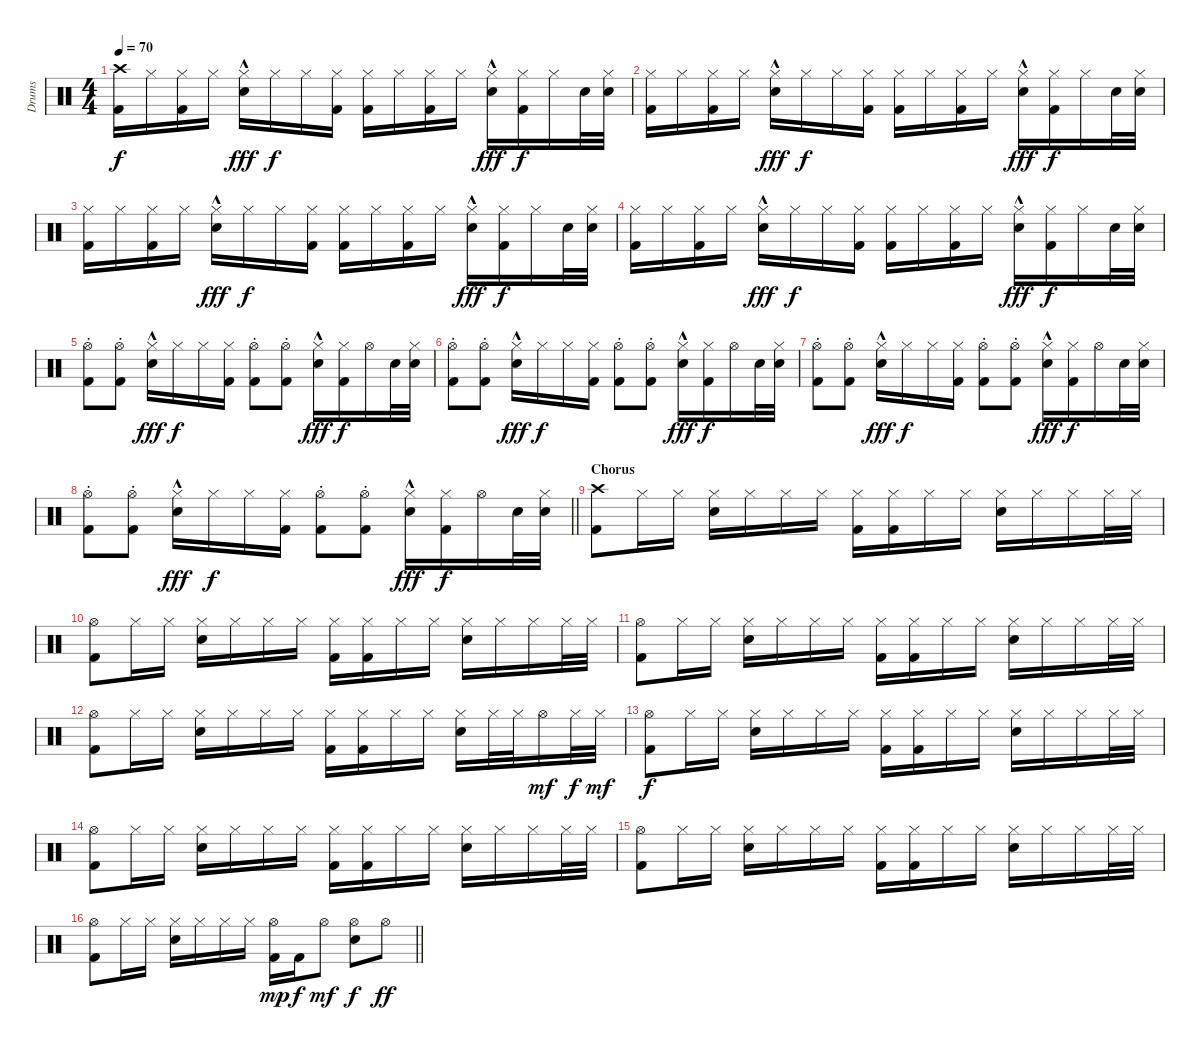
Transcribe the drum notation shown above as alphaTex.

\track ("Drums" "Drums") {instrument percussion}
\staff {score}
\articulation defaults
\ts (4 4)
\tempo 70
\clef neutral
\ks c
("Crash high (hit)" "Kick (hit) 2").16{dy f} "Hi-Hat (closed)".16 ("Hi-Hat (closed)" "Kick (hit) 2").16 "Hi-Hat (closed)".16 ("Hi-Hat (closed)" "Electric Snare (hit)"{hac}).16{dy fff} "Hi-Hat (closed)".16{dy f} "Hi-Hat (closed)".16 ("Hi-Hat (closed)" "Kick (hit) 2").16 ("Hi-Hat (closed)" "Kick (hit) 2").16 "Hi-Hat (closed)".16 ("Hi-Hat (closed)" "Kick (hit) 2").16 "Hi-Hat (closed)".16 ("Hi-Hat (closed)" "Electric Snare (hit)"{hac}).16{dy fff} ("Hi-Hat (closed)" "Kick (hit) 2").16{dy f} "Hi-Hat (closed)".16 "Electric Snare (hit)".32 ("Hi-Hat (closed)" "Electric Snare (hit)").32 |
("Hi-Hat (closed)" "Kick (hit) 2").16 "Hi-Hat (closed)".16 ("Hi-Hat (closed)" "Kick (hit) 2").16 "Hi-Hat (closed)".16 ("Hi-Hat (closed)" "Electric Snare (hit)"{hac}).16{dy fff} "Hi-Hat (closed)".16{dy f} "Hi-Hat (closed)".16 ("Hi-Hat (closed)" "Kick (hit) 2").16 ("Hi-Hat (closed)" "Kick (hit) 2").16 "Hi-Hat (closed)".16 ("Hi-Hat (closed)" "Kick (hit) 2").16 "Hi-Hat (closed)".16 ("Hi-Hat (closed)" "Electric Snare (hit)"{hac}).16{dy fff} ("Hi-Hat (closed)" "Kick (hit) 2").16{dy f} "Hi-Hat (closed)".16 "Electric Snare (hit)".32 ("Hi-Hat (closed)" "Electric Snare (hit)").32 |
("Hi-Hat (closed)" "Kick (hit) 2").16 "Hi-Hat (closed)".16 ("Hi-Hat (closed)" "Kick (hit) 2").16 "Hi-Hat (closed)".16 ("Hi-Hat (closed)" "Electric Snare (hit)"{hac}).16{dy fff} "Hi-Hat (closed)".16{dy f} "Hi-Hat (closed)".16 ("Hi-Hat (closed)" "Kick (hit) 2").16 ("Hi-Hat (closed)" "Kick (hit) 2").16 "Hi-Hat (closed)".16 ("Hi-Hat (closed)" "Kick (hit) 2").16 "Hi-Hat (closed)".16 ("Hi-Hat (closed)" "Electric Snare (hit)"{hac}).16{dy fff} ("Hi-Hat (closed)" "Kick (hit) 2").16{dy f} "Hi-Hat (closed)".16 "Electric Snare (hit)".32 ("Hi-Hat (closed)" "Electric Snare (hit)").32 |
("Hi-Hat (closed)" "Kick (hit) 2").16 "Hi-Hat (closed)".16 ("Hi-Hat (closed)" "Kick (hit) 2").16 "Hi-Hat (closed)".16 ("Hi-Hat (closed)" "Electric Snare (hit)"{hac}).16{dy fff} "Hi-Hat (closed)".16{dy f} "Hi-Hat (closed)".16 ("Hi-Hat (closed)" "Kick (hit) 2").16 ("Hi-Hat (closed)" "Kick (hit) 2").16 "Hi-Hat (closed)".16 ("Hi-Hat (closed)" "Kick (hit) 2").16 "Hi-Hat (closed)".16 ("Hi-Hat (closed)" "Electric Snare (hit)"{hac}).16{dy fff} ("Hi-Hat (closed)" "Kick (hit) 2").16{dy f} "Hi-Hat (closed)".16 "Electric Snare (hit)".32 ("Hi-Hat (closed)" "Electric Snare (hit)").32 |
("Hi-Hat (open)"{st} "Kick (hit) 2").8 ("Hi-Hat (open)"{st} "Kick (hit) 2").8 ("Hi-Hat (closed)" "Electric Snare (hit)"{hac}).16{dy fff} "Hi-Hat (closed)".16{dy f} "Hi-Hat (closed)".16 ("Hi-Hat (closed)" "Kick (hit) 2").16 ("Hi-Hat (open)"{st} "Kick (hit) 2").8 ("Hi-Hat (open)"{st} "Kick (hit) 2").8 ("Hi-Hat (closed)" "Electric Snare (hit)"{hac}).16{dy fff} ("Hi-Hat (closed)" "Kick (hit) 2").16{dy f} "Hi-Hat (open)".16 "Electric Snare (hit)".32 ("Hi-Hat (closed)" "Electric Snare (hit)").32 |
("Hi-Hat (open)"{st} "Kick (hit) 2").8 ("Hi-Hat (open)"{st} "Kick (hit) 2").8 ("Hi-Hat (closed)" "Electric Snare (hit)"{hac}).16{dy fff} "Hi-Hat (closed)".16{dy f} "Hi-Hat (closed)".16 ("Hi-Hat (closed)" "Kick (hit) 2").16 ("Hi-Hat (open)"{st} "Kick (hit) 2").8 ("Hi-Hat (open)"{st} "Kick (hit) 2").8 ("Hi-Hat (closed)" "Electric Snare (hit)"{hac}).16{dy fff} ("Hi-Hat (closed)" "Kick (hit) 2").16{dy f} "Hi-Hat (open)".16 "Electric Snare (hit)".32 ("Hi-Hat (closed)" "Electric Snare (hit)").32 |
("Hi-Hat (open)"{st} "Kick (hit) 2").8 ("Hi-Hat (open)"{st} "Kick (hit) 2").8 ("Hi-Hat (closed)" "Electric Snare (hit)"{hac}).16{dy fff} "Hi-Hat (closed)".16{dy f} "Hi-Hat (closed)".16 ("Hi-Hat (closed)" "Kick (hit) 2").16 ("Hi-Hat (open)"{st} "Kick (hit) 2").8 ("Hi-Hat (open)"{st} "Kick (hit) 2").8 ("Hi-Hat (closed)" "Electric Snare (hit)"{hac}).16{dy fff} ("Hi-Hat (closed)" "Kick (hit) 2").16{dy f} "Hi-Hat (open)".16 "Electric Snare (hit)".32 ("Hi-Hat (closed)" "Electric Snare (hit)").32 |
\barLineRight lightlight
("Hi-Hat (open)"{st} "Kick (hit) 2").8 ("Hi-Hat (open)"{st} "Kick (hit) 2").8 ("Hi-Hat (closed)" "Electric Snare (hit)"{hac}).16{dy fff} "Hi-Hat (closed)".16{dy f} "Hi-Hat (closed)".16 ("Hi-Hat (closed)" "Kick (hit) 2").16 ("Hi-Hat (open)"{st} "Kick (hit) 2").8 ("Hi-Hat (open)"{st} "Kick (hit) 2").8 ("Hi-Hat (closed)" "Electric Snare (hit)"{hac}).16{dy fff} ("Hi-Hat (closed)" "Kick (hit) 2").16{dy f} "Hi-Hat (open)".16 "Electric Snare (hit)".32 ("Hi-Hat (closed)" "Electric Snare (hit)").32 |
\section ("" "Chorus")
("Crash high (hit)" "Kick (hit) 2").8 "Hi-Hat (closed)".16 "Hi-Hat (closed)".16 ("Hi-Hat (closed)" "Electric Snare (hit)").16 "Hi-Hat (closed)".16 "Hi-Hat (closed)".16 "Hi-Hat (closed)".16 ("Hi-Hat (closed)" "Kick (hit) 2").16 ("Hi-Hat (closed)" "Kick (hit) 2").16 "Hi-Hat (closed)".16 "Hi-Hat (closed)".16 ("Hi-Hat (closed)" "Electric Snare (hit)").16 "Hi-Hat (closed)".16 "Hi-Hat (closed)".16 "Hi-Hat (closed)".32 "Hi-Hat (closed)".32 |
("Hi-Hat (open)" "Kick (hit) 2").8 "Hi-Hat (closed)".16 "Hi-Hat (closed)".16 ("Hi-Hat (closed)" "Electric Snare (hit)").16 "Hi-Hat (closed)".16 "Hi-Hat (closed)".16 "Hi-Hat (closed)".16 ("Hi-Hat (closed)" "Kick (hit) 2").16 ("Hi-Hat (closed)" "Kick (hit) 2").16 "Hi-Hat (closed)".16 "Hi-Hat (closed)".16 ("Hi-Hat (closed)" "Electric Snare (hit)").16 "Hi-Hat (closed)".16 "Hi-Hat (closed)".16 "Hi-Hat (closed)".32 "Hi-Hat (closed)".32 |
("Hi-Hat (open)" "Kick (hit) 2").8 "Hi-Hat (closed)".16 "Hi-Hat (closed)".16 ("Hi-Hat (closed)" "Electric Snare (hit)").16 "Hi-Hat (closed)".16 "Hi-Hat (closed)".16 "Hi-Hat (closed)".16 ("Hi-Hat (closed)" "Kick (hit) 2").16 ("Hi-Hat (closed)" "Kick (hit) 2").16 "Hi-Hat (closed)".16 "Hi-Hat (closed)".16 ("Hi-Hat (closed)" "Electric Snare (hit)").16 "Hi-Hat (closed)".16 "Hi-Hat (closed)".16 "Hi-Hat (closed)".32 "Hi-Hat (closed)".32 |
("Hi-Hat (open)" "Kick (hit) 2").8 "Hi-Hat (closed)".16 "Hi-Hat (closed)".16 ("Hi-Hat (closed)" "Electric Snare (hit)").16 "Hi-Hat (closed)".16 "Hi-Hat (closed)".16 "Hi-Hat (closed)".16 ("Hi-Hat (closed)" "Kick (hit) 2").16 ("Hi-Hat (closed)" "Kick (hit) 2").16 "Hi-Hat (closed)".16 "Hi-Hat (closed)".16 ("Hi-Hat (closed)" "Electric Snare (hit)").16 "Hi-Hat (closed)".32 "Hi-Hat (closed)".32 "Hi-Hat (open)".16{dy mf} "Hi-Hat (closed)".32{dy f} "Hi-Hat (closed)".32{dy mf} |
("Hi-Hat (open)" "Kick (hit) 2").8{dy f} "Hi-Hat (closed)".16 "Hi-Hat (closed)".16 ("Hi-Hat (closed)" "Electric Snare (hit)").16 "Hi-Hat (closed)".16 "Hi-Hat (closed)".16 "Hi-Hat (closed)".16 ("Hi-Hat (closed)" "Kick (hit) 2").16 ("Hi-Hat (closed)" "Kick (hit) 2").16 "Hi-Hat (closed)".16 "Hi-Hat (closed)".16 ("Hi-Hat (closed)" "Electric Snare (hit)").16 "Hi-Hat (closed)".16 "Hi-Hat (closed)".16 "Hi-Hat (closed)".32 "Hi-Hat (closed)".32 |
("Hi-Hat (open)" "Kick (hit) 2").8 "Hi-Hat (closed)".16 "Hi-Hat (closed)".16 ("Hi-Hat (closed)" "Electric Snare (hit)").16 "Hi-Hat (closed)".16 "Hi-Hat (closed)".16 "Hi-Hat (closed)".16 ("Hi-Hat (closed)" "Kick (hit) 2").16 ("Hi-Hat (closed)" "Kick (hit) 2").16 "Hi-Hat (closed)".16 "Hi-Hat (closed)".16 ("Hi-Hat (closed)" "Electric Snare (hit)").16 "Hi-Hat (closed)".16 "Hi-Hat (closed)".16 "Hi-Hat (closed)".32 "Hi-Hat (closed)".32 |
("Hi-Hat (open)" "Kick (hit) 2").8 "Hi-Hat (closed)".16 "Hi-Hat (closed)".16 ("Hi-Hat (closed)" "Electric Snare (hit)").16 "Hi-Hat (closed)".16 "Hi-Hat (closed)".16 "Hi-Hat (closed)".16 ("Hi-Hat (closed)" "Kick (hit) 2").16 ("Hi-Hat (closed)" "Kick (hit) 2").16 "Hi-Hat (closed)".16 "Hi-Hat (closed)".16 ("Hi-Hat (closed)" "Electric Snare (hit)").16 "Hi-Hat (closed)".16 "Hi-Hat (closed)".16 "Hi-Hat (closed)".32 "Hi-Hat (closed)".32 |
\barLineRight lightlight
("Hi-Hat (open)" "Kick (hit) 2").8 "Hi-Hat (closed)".16 "Hi-Hat (closed)".16 ("Hi-Hat (closed)" "Electric Snare (hit)").16 "Hi-Hat (closed)".16 "Hi-Hat (closed)".16 "Hi-Hat (closed)".16 ("Hi-Hat (open)" "Kick (hit) 2").16{dy mp} "Kick (hit) 2".16{dy f} "Hi-Hat (open)".8{dy mf} ("Hi-Hat (open)" "Electric Snare (hit)").8{dy f} "Hi-Hat (open)".8{dy ff}
